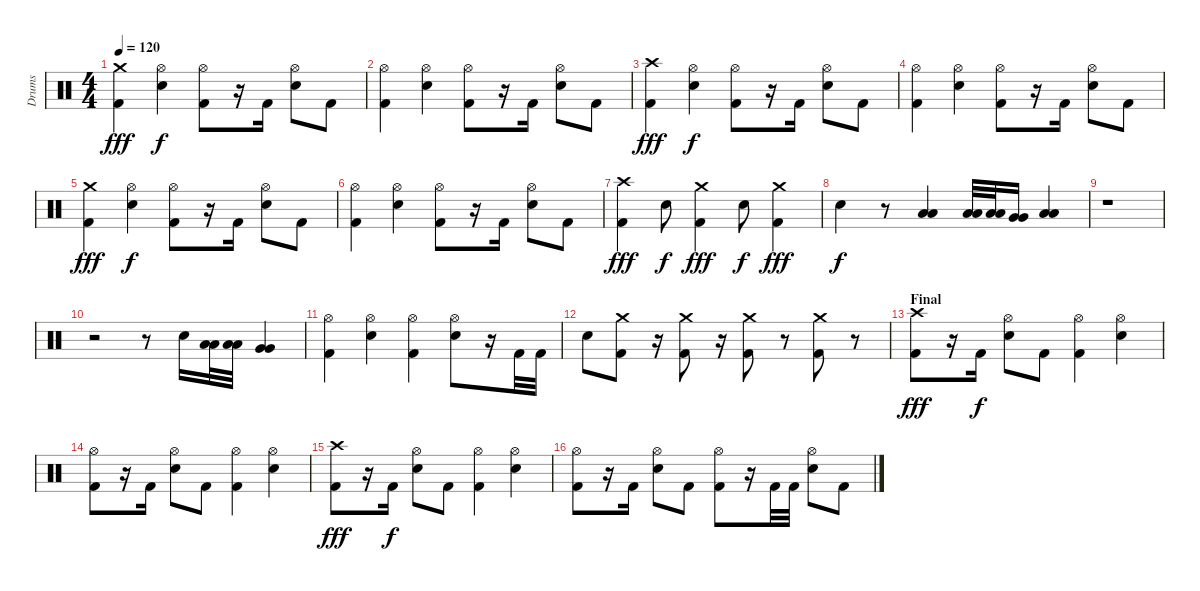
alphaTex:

\track ("Drums" "Drums") {instrument percussion}
\staff {score}
\articulation defaults
\ts (4 4)
\tempo 120
\clef neutral
\ks c
("Kick (hit) 2" "Crash medium (hit)").4{dy fff} ("Electric Snare (hit)" "Hi-Hat (open)").4{dy f} ("Kick (hit) 2" "Hi-Hat (open)").8 r.16 "Kick (hit) 2".16 ("Electric Snare (hit)" "Hi-Hat (open)").8 "Kick (hit) 2".8 |
("Kick (hit) 2" "Hi-Hat (open)").4 ("Electric Snare (hit)" "Hi-Hat (open)").4 ("Kick (hit) 2" "Hi-Hat (open)").8 r.16 "Kick (hit) 2".16 ("Electric Snare (hit)" "Hi-Hat (open)").8 "Kick (hit) 2".8 |
("Kick (hit) 2" "Crash high (hit)").4{dy fff} ("Electric Snare (hit)" "Hi-Hat (open)").4{dy f} ("Kick (hit) 2" "Hi-Hat (open)").8 r.16 "Kick (hit) 2".16 ("Electric Snare (hit)" "Hi-Hat (open)").8 "Kick (hit) 2".8 |
("Kick (hit) 2" "Hi-Hat (open)").4 ("Electric Snare (hit)" "Hi-Hat (open)").4 ("Kick (hit) 2" "Hi-Hat (open)").8 r.16 "Kick (hit) 2".16 ("Electric Snare (hit)" "Hi-Hat (open)").8 "Kick (hit) 2".8 |
("Kick (hit) 2" "Crash medium (hit)").4{dy fff} ("Electric Snare (hit)" "Hi-Hat (open)").4{dy f} ("Kick (hit) 2" "Hi-Hat (open)").8 r.16 "Kick (hit) 2".16 ("Electric Snare (hit)" "Hi-Hat (open)").8 "Kick (hit) 2".8 |
("Kick (hit) 2" "Hi-Hat (open)").4 ("Electric Snare (hit)" "Hi-Hat (open)").4 ("Kick (hit) 2" "Hi-Hat (open)").8 r.16 "Kick (hit) 2".16 ("Electric Snare (hit)" "Hi-Hat (open)").8 "Kick (hit) 2".8 |
("Kick (hit) 2" "Crash high (hit)").4{dy fff} "Electric Snare (hit)".8{dy f} ("Kick (hit) 2" "Crash medium (hit)").4{dy fff} "Electric Snare (hit)".8{dy f} ("Kick (hit) 2" "Crash medium (hit)").4{dy fff} |
"Electric Snare (hit)".4{dy f} r.8 ("Low Tom (hit)" "Low Tom (hit)").4 ("Low Tom (hit)" "Low Tom (hit)").32 ("Low Tom (hit)" "Low Tom (hit)").32 ("Very Low Tom (hit)" "Very Low Tom (hit)").16 ("Low Floor Tom (hit)" "Low Floor Tom (hit)").4 |
r.1 |
r.2 r.8 "Electric Snare (hit)".16 ("Low Tom (hit)" "Low Tom (hit)").32 ("Low Tom (hit)" "Low Tom (hit)").32 ("Very Low Tom (hit)" "Very Low Tom (hit)").4 |
("Kick (hit) 2" "Hi-Hat (open)").4 ("Electric Snare (hit)" "Hi-Hat (open)").4 ("Kick (hit) 2" "Hi-Hat (open)").4 ("Electric Snare (hit)" "Hi-Hat (open)").8 r.16 "Kick (hit) 2".32 "Kick (hit) 2".32 |
"Electric Snare (hit)".8 ("Kick (hit) 2" "Crash medium (hit)").8 r.16 ("Kick (hit) 2" "Crash medium (hit)").8 r.16 ("Kick (hit) 2" "Crash medium (hit)").8 r.8 ("Kick (hit) 2" "Crash medium (hit)").8 r.8 |
\section ("" "Final")
("Kick (hit) 2" "Crash high (hit)").8{dy fff} r.16 "Kick (hit) 2".16{dy f} ("Electric Snare (hit)" "Hi-Hat (open)").8 "Kick (hit) 2".8 ("Kick (hit) 2" "Hi-Hat (open)").4 ("Electric Snare (hit)" "Hi-Hat (open)").4 |
("Kick (hit) 2" "Hi-Hat (open)").8 r.16 "Kick (hit) 2".16 ("Electric Snare (hit)" "Hi-Hat (open)").8 "Kick (hit) 2".8 ("Kick (hit) 2" "Hi-Hat (open)").4 ("Electric Snare (hit)" "Hi-Hat (open)").4 |
("Kick (hit) 2" "Crash high (hit)").8{dy fff} r.16 "Kick (hit) 2".16{dy f} ("Electric Snare (hit)" "Hi-Hat (open)").8 "Kick (hit) 2".8 ("Kick (hit) 2" "Hi-Hat (open)").4 ("Electric Snare (hit)" "Hi-Hat (open)").4 |
("Kick (hit) 2" "Hi-Hat (open)").8 r.16 "Kick (hit) 2".16 ("Electric Snare (hit)" "Hi-Hat (open)").8 "Kick (hit) 2".8 ("Kick (hit) 2" "Hi-Hat (open)").8 r.16 "Kick (hit) 2".32 "Kick (hit) 2".32 ("Electric Snare (hit)" "Hi-Hat (open)").8 "Kick (hit) 2".8
